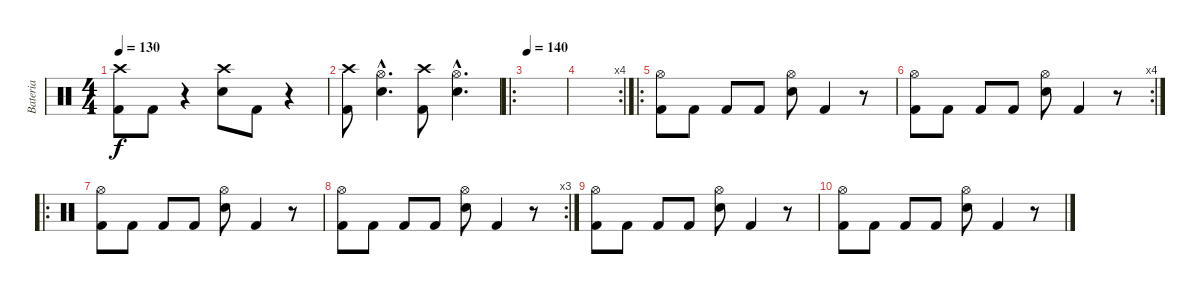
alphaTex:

\track ("Bateria" "Bateria") {instrument percussion}
\staff {score}
\articulation defaults
\ts (4 4)
\tempo 130
\clef neutral
\ks c
("Crash high (hit)" "Kick (hit) 2").8{dy f} "Kick (hit) 2".8 r.4 ("Crash high (hit)" "Electric Snare (hit)").8 "Kick (hit) 2".8 r.4 |
("Crash high (hit)" "Kick (hit) 2").8 ("Hi-Hat (open)"{hac} "Electric Snare (hit)"{hac}).4{d} ("Crash high (hit)" "Kick (hit) 2").8 ("Hi-Hat (open)"{hac} "Electric Snare (hit)"{hac}).4{d} |
\ro
\tempo 140
|
\rc 4
|
\ro
("Hi-Hat (open)" "Kick (hit) 2").8 "Kick (hit) 2".8 "Kick (hit) 2".8 "Kick (hit) 2".8 ("Hi-Hat (open)" "Electric Snare (hit)").8 "Kick (hit) 2".4 r.8 |
\rc 4
("Hi-Hat (open)" "Kick (hit) 2").8 "Kick (hit) 2".8 "Kick (hit) 2".8 "Kick (hit) 2".8 ("Hi-Hat (open)" "Electric Snare (hit)").8 "Kick (hit) 2".4 r.8 |
\ro
("Hi-Hat (open)" "Kick (hit) 2").8 "Kick (hit) 2".8 "Kick (hit) 2".8 "Kick (hit) 2".8 ("Hi-Hat (open)" "Electric Snare (hit)").8 "Kick (hit) 2".4 r.8 |
\rc 3
("Hi-Hat (open)" "Kick (hit) 2").8 "Kick (hit) 2".8 "Kick (hit) 2".8 "Kick (hit) 2".8 ("Hi-Hat (open)" "Electric Snare (hit)").8 "Kick (hit) 2".4 r.8 |
("Hi-Hat (open)" "Kick (hit) 2").8 "Kick (hit) 2".8 "Kick (hit) 2".8 "Kick (hit) 2".8 ("Hi-Hat (open)" "Electric Snare (hit)").8 "Kick (hit) 2".4 r.8 |
("Hi-Hat (open)" "Kick (hit) 2").8 "Kick (hit) 2".8 "Kick (hit) 2".8 "Kick (hit) 2".8 ("Hi-Hat (open)" "Electric Snare (hit)").8 "Kick (hit) 2".4 r.8
